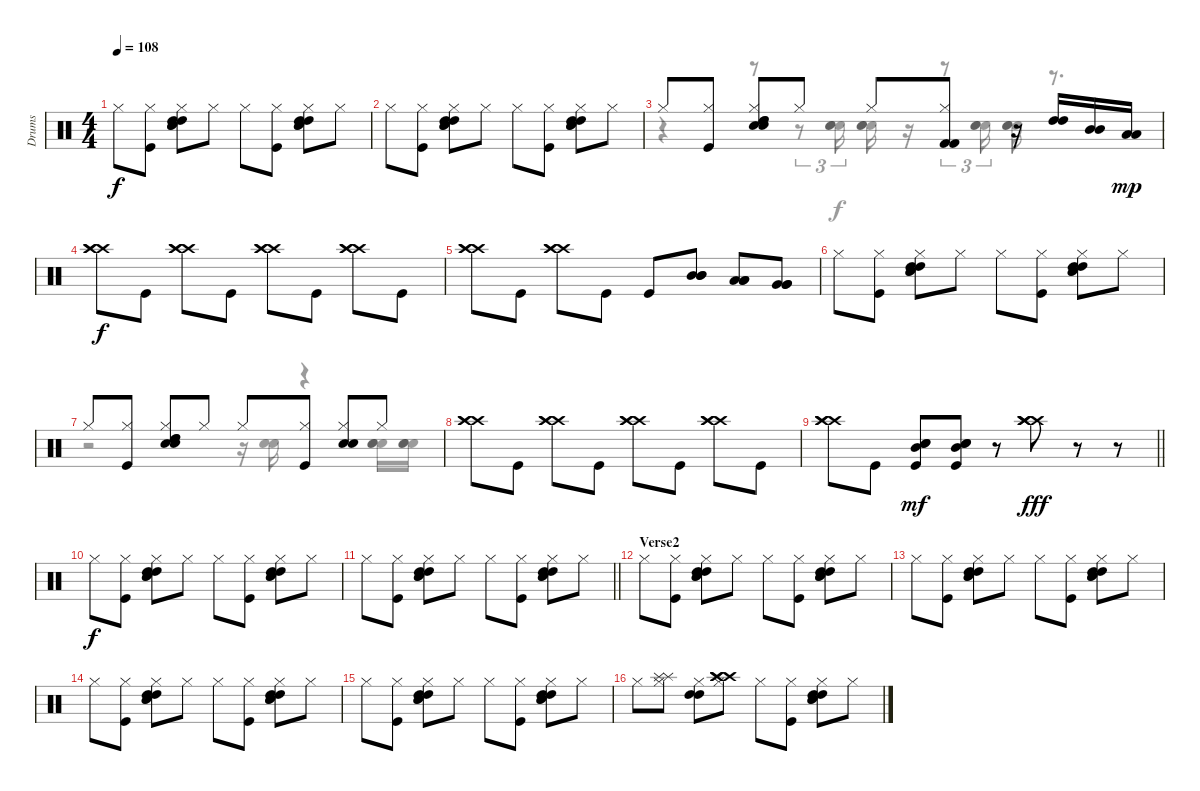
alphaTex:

\track ("Drums" "Drums") {instrument percussion}
\staff {score}
\articulation defaults
\voice
\ts (4 4)
\tempo 108
\clef neutral
\ks c "Hi-Hat (closed)".8{dy f}
("Kick (hit)" "Hi-Hat (closed)").8 ("Snare (hit) 2" "Snare (hit) 2" "High Tom (hit)" "High Tom (hit)" "Hi-Hat (closed)").8 "Hi-Hat (closed)".8 "Hi-Hat (closed)".8 ("Kick (hit)" "Hi-Hat (closed)").8 ("Snare (hit) 2" "Snare (hit) 2" "High Tom (hit)" "High Tom (hit)" "Hi-Hat (closed)").8 "Hi-Hat (closed)".8 |
"Hi-Hat (closed)".8 ("Kick (hit)" "Hi-Hat (closed)").8 ("Snare (hit) 2" "Snare (hit) 2" "High Tom (hit)" "High Tom (hit)" "Hi-Hat (closed)").8 "Hi-Hat (closed)".8 "Hi-Hat (closed)".8 ("Kick (hit)" "Hi-Hat (closed)").8 ("Snare (hit) 2" "Snare (hit) 2" "High Tom (hit)" "High Tom (hit)" "Hi-Hat (closed)").8 "Hi-Hat (closed)".8 |
"Hi-Hat (closed)".8 ("Kick (hit)" "Hi-Hat (closed)").8 ("Snare (hit) 2" "Snare (hit) 2" "High Tom (hit)" "High Tom (hit)" "Hi-Hat (closed)").8 "Hi-Hat (closed)".8 "Hi-Hat (closed)".8 ("Kick (hit) 2" "Kick (hit) 2" "Hi-Hat (closed)").8 r.16 ("High Tom (hit)" "High Tom (hit)").16 ("Mid Tom (hit)" "Mid Tom (hit)").16 ("Low Tom (hit)" "Low Tom (hit)").16{dy mp} |
("Crash high (hit)" "Crash high (hit)" "Crash high (hit)").8{dy f} "Kick (hit)".8 ("Crash high (hit)" "Crash high (hit)" "Crash high (hit)").8 "Kick (hit)".8 ("Crash high (hit)" "Crash high (hit)" "Crash high (hit)").8 "Kick (hit)".8 ("Crash high (hit)" "Crash high (hit)" "Crash high (hit)").8 "Kick (hit)".8 |
("Crash high (hit)" "Crash high (hit)" "Crash high (hit)").8 "Kick (hit)".8 ("Crash high (hit)" "Crash high (hit)" "Crash high (hit)").8 "Kick (hit)".8 "Kick (hit)".8 ("Mid Tom (hit)" "Mid Tom (hit)" "Mid Tom (hit)").8 ("Low Tom (hit)" "Low Tom (hit)" "Low Tom (hit)").8 ("Very Low Tom (hit)" "Very Low Tom (hit)" "Very Low Tom (hit)").8 |
"Hi-Hat (closed)".8 ("Kick (hit)" "Hi-Hat (closed)").8 ("Snare (hit) 2" "Snare (hit) 2" "High Tom (hit)" "High Tom (hit)" "Hi-Hat (closed)").8 "Hi-Hat (closed)".8 "Hi-Hat (closed)".8 ("Kick (hit)" "Hi-Hat (closed)").8 ("Snare (hit) 2" "Snare (hit) 2" "High Tom (hit)" "High Tom (hit)" "Hi-Hat (closed)").8 "Hi-Hat (closed)".8 |
"Hi-Hat (closed)".8 ("Kick (hit)" "Hi-Hat (closed)").8 ("Snare (hit) 2" "Snare (hit) 2" "High Tom (hit)" "High Tom (hit)" "Hi-Hat (closed)").8 "Hi-Hat (closed)".8 "Hi-Hat (closed)".8 ("Kick (hit)" "Hi-Hat (closed)").8 ("Snare (hit) 2" "Snare (hit) 2" "Hi-Hat (closed)").8 "Hi-Hat (closed)".8 |
("Crash high (hit)" "Crash high (hit)" "Crash high (hit)").8 "Kick (hit)".8 ("Crash high (hit)" "Crash high (hit)" "Crash high (hit)").8 "Kick (hit)".8 ("Crash high (hit)" "Crash high (hit)" "Crash high (hit)").8 "Kick (hit)".8 ("Crash high (hit)" "Crash high (hit)" "Crash high (hit)").8 "Kick (hit)".8 |
\barLineRight lightlight
("Crash high (hit)" "Crash high (hit)" "Crash high (hit)").8 "Kick (hit)".8 ("Snare (hit) 2" "Snare (hit) 2" "Mid Tom (hit)" "Kick (hit)").8{dy mf} ("Snare (hit) 2" "Snare (hit) 2" "Mid Tom (hit)" "Kick (hit)").8 r.8 ("Crash high (hit)" "Crash high (hit)" "Crash high (hit)" "Crash high (hit)").8{dy fff} r.8 r.8 |
"Hi-Hat (closed)".8{dy f volume 4} ("Kick (hit)" "Hi-Hat (closed)").8 ("Snare (hit) 2" "Snare (hit) 2" "High Tom (hit)" "High Tom (hit)" "Hi-Hat (closed)").8 "Hi-Hat (closed)".8 "Hi-Hat (closed)".8 ("Kick (hit)" "Hi-Hat (closed)").8 ("Snare (hit) 2" "Snare (hit) 2" "High Tom (hit)" "High Tom (hit)" "Hi-Hat (closed)").8 "Hi-Hat (closed)".8 |
\barLineRight lightlight "Hi-Hat (closed)".8
("Kick (hit)" "Hi-Hat (closed)").8 ("Snare (hit) 2" "Snare (hit) 2" "High Tom (hit)" "High Tom (hit)" "Hi-Hat (closed)").8 "Hi-Hat (closed)".8 "Hi-Hat (closed)".8 ("Kick (hit)" "Hi-Hat (closed)").8 ("Snare (hit) 2" "Snare (hit) 2" "High Tom (hit)" "High Tom (hit)" "Hi-Hat (closed)").8 "Hi-Hat (closed)".8 |
\section ("" "Verse2")
"Hi-Hat (closed)".8{volume 16} ("Kick (hit)" "Hi-Hat (closed)").8 ("Snare (hit) 2" "Snare (hit) 2" "High Tom (hit)" "High Tom (hit)" "Hi-Hat (closed)").8 "Hi-Hat (closed)".8 "Hi-Hat (closed)".8 ("Kick (hit)" "Hi-Hat (closed)").8 ("Snare (hit) 2" "Snare (hit) 2" "High Tom (hit)" "High Tom (hit)" "Hi-Hat (closed)").8 "Hi-Hat (closed)".8 |
"Hi-Hat (closed)".8 ("Kick (hit)" "Hi-Hat (closed)").8 ("Snare (hit) 2" "Snare (hit) 2" "High Tom (hit)" "High Tom (hit)" "Hi-Hat (closed)").8 "Hi-Hat (closed)".8 "Hi-Hat (closed)".8 ("Kick (hit)" "Hi-Hat (closed)").8 ("Snare (hit) 2" "Snare (hit) 2" "High Tom (hit)" "High Tom (hit)" "Hi-Hat (closed)").8 "Hi-Hat (closed)".8 |
"Hi-Hat (closed)".8 ("Kick (hit)" "Hi-Hat (closed)").8 ("Snare (hit) 2" "Snare (hit) 2" "High Tom (hit)" "High Tom (hit)" "Hi-Hat (closed)").8 "Hi-Hat (closed)".8 "Hi-Hat (closed)".8 ("Kick (hit)" "Hi-Hat (closed)").8 ("Snare (hit) 2" "Snare (hit) 2" "High Tom (hit)" "High Tom (hit)" "Hi-Hat (closed)").8 "Hi-Hat (closed)".8 |
"Hi-Hat (closed)".8 ("Kick (hit)" "Hi-Hat (closed)").8 ("Snare (hit) 2" "Snare (hit) 2" "High Tom (hit)" "High Tom (hit)" "Hi-Hat (closed)").8 "Hi-Hat (closed)".8 "Hi-Hat (closed)".8 ("Kick (hit)" "Hi-Hat (closed)").8 ("Snare (hit) 2" "Snare (hit) 2" "High Tom (hit)" "High Tom (hit)" "Hi-Hat (closed)").8 "Hi-Hat (closed)".8 |
"Hi-Hat (closed)".8 ("Splash (hit)" "Splash (hit)" "Hi-Hat (closed)").8 ("High Tom (hit)" "High Tom (hit)" "Hi-Hat (closed)").8 ("Crash high (hit)" "Crash high (hit)" "Crash high (hit)" "Hi-Hat (closed)").8 "Hi-Hat (closed)".8 ("Kick (hit)" "Hi-Hat (closed)").8 ("Snare (hit) 2" "Snare (hit) 2" "High Tom (hit)" "High Tom (hit)" "Hi-Hat (closed)").8 "Hi-Hat (closed)".8
\voice
\clef neutral
\ottava regular
\simile none
\ks c
|
|
r.4 r.8 r.8{tu (3 2)} ("Snare (hit) 2" "Snare (hit) 2" "Snare (hit) 2").16{tu (3 2)} ("Snare (hit) 2" "Snare (hit) 2" "Snare (hit) 2").16 r.16 r.8{tu (3 2)} ("Snare (hit) 2" "Snare (hit) 2" "Snare (hit) 2").16{tu (3 2)} ("Snare (hit) 2" "Snare (hit) 2" "Snare (hit) 2").16 r.8{d} |
|
|
|
r.2 r.16 ("Snare (hit) 2" "Snare (hit) 2").16 r.4 ("Snare (hit) 2" "Snare (hit) 2" "Snare (hit) 2").16 ("Snare (hit) 2" "Snare (hit) 2" "Snare (hit) 2").16 |
|
\barLineRight lightlight
|
|
\barLineRight lightlight
|
|
|
|
|
